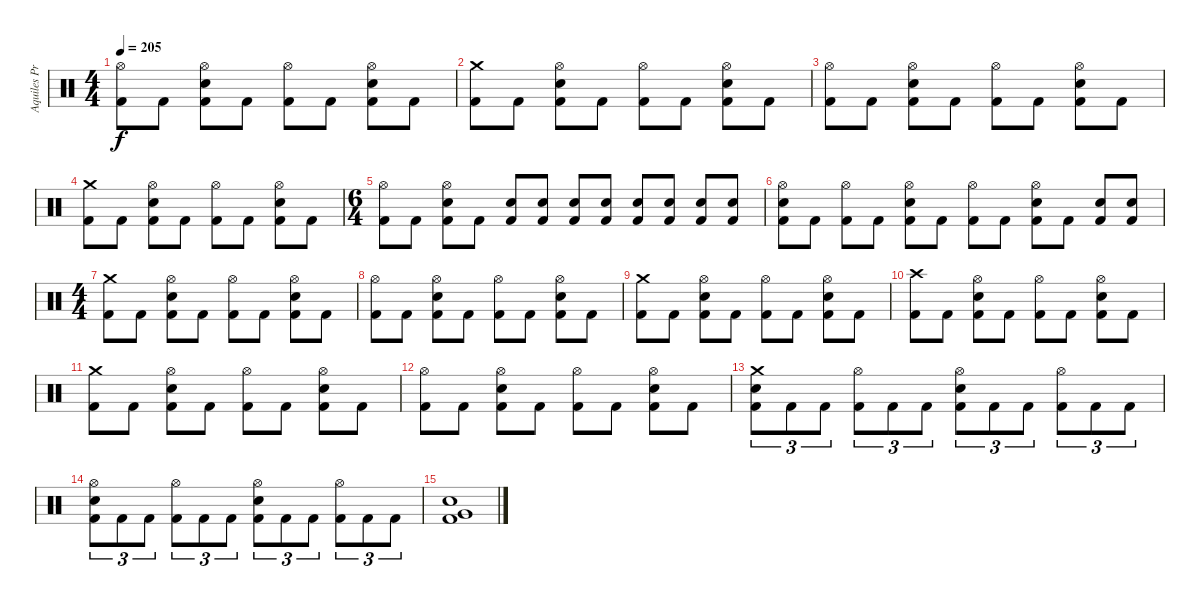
\track ("Aquiles Priester" "Aquiles Pr") {instrument percussion}
\staff {score}
\articulation defaults
\ts (4 4)
\tempo 205
\clef neutral
\ks c
("Hi-Hat (open)" "Kick (hit) 2").8{dy f} "Kick (hit) 2".8 ("Hi-Hat (open)" "Electric Snare (hit)" "Kick (hit) 2").8 "Kick (hit) 2".8 ("Hi-Hat (open)" "Kick (hit) 2").8 "Kick (hit) 2".8 ("Hi-Hat (open)" "Electric Snare (hit)" "Kick (hit) 2").8 "Kick (hit) 2".8 |
("Crash medium (hit)" "Kick (hit) 2").8 "Kick (hit) 2".8 ("Hi-Hat (open)" "Electric Snare (hit)" "Kick (hit) 2").8 "Kick (hit) 2".8 ("Hi-Hat (open)" "Kick (hit) 2").8 "Kick (hit) 2".8 ("Hi-Hat (open)" "Electric Snare (hit)" "Kick (hit) 2").8 "Kick (hit) 2".8 |
("Hi-Hat (open)" "Kick (hit) 2").8 "Kick (hit) 2".8 ("Hi-Hat (open)" "Electric Snare (hit)" "Kick (hit) 2").8 "Kick (hit) 2".8 ("Hi-Hat (open)" "Kick (hit) 2").8 "Kick (hit) 2".8 ("Hi-Hat (open)" "Electric Snare (hit)" "Kick (hit) 2").8 "Kick (hit) 2".8 |
("Crash medium (hit)" "Kick (hit) 2").8 "Kick (hit) 2".8 ("Hi-Hat (open)" "Electric Snare (hit)" "Kick (hit) 2").8 "Kick (hit) 2".8 ("Hi-Hat (open)" "Kick (hit) 2").8 "Kick (hit) 2".8 ("Hi-Hat (open)" "Electric Snare (hit)" "Kick (hit) 2").8 "Kick (hit) 2".8 |
\ts (6 4)
("Hi-Hat (open)" "Kick (hit) 2").8 "Kick (hit) 2".8 ("Hi-Hat (open)" "Electric Snare (hit)" "Kick (hit) 2").8 "Kick (hit) 2".8 ("Electric Snare (hit)" "Kick (hit) 2").8 ("Electric Snare (hit)" "Kick (hit) 2").8 ("Electric Snare (hit)" "Kick (hit) 2").8 ("Electric Snare (hit)" "Kick (hit) 2").8 ("Electric Snare (hit)" "Kick (hit) 2").8 ("Electric Snare (hit)" "Kick (hit) 2").8 ("Electric Snare (hit)" "Kick (hit) 2").8 ("Electric Snare (hit)" "Kick (hit) 2").8 |
("Hi-Hat (open)" "Electric Snare (hit)" "Kick (hit) 2").8 "Kick (hit) 2".8 ("Hi-Hat (open)" "Kick (hit) 2").8 "Kick (hit) 2".8 ("Hi-Hat (open)" "Electric Snare (hit)" "Kick (hit) 2").8 "Kick (hit) 2".8 ("Hi-Hat (open)" "Kick (hit) 2").8 "Kick (hit) 2".8 ("Hi-Hat (open)" "Electric Snare (hit)" "Kick (hit) 2").8 "Kick (hit) 2".8 ("Electric Snare (hit)" "Kick (hit) 2").8 ("Electric Snare (hit)" "Kick (hit) 2").8 |
\ts (4 4)
("Crash medium (hit)" "Kick (hit) 2").8 "Kick (hit) 2".8 ("Hi-Hat (open)" "Electric Snare (hit)" "Kick (hit) 2").8 "Kick (hit) 2".8 ("Hi-Hat (open)" "Kick (hit) 2").8 "Kick (hit) 2".8 ("Hi-Hat (open)" "Electric Snare (hit)" "Kick (hit) 2").8 "Kick (hit) 2".8 |
("Hi-Hat (open)" "Kick (hit) 2").8 "Kick (hit) 2".8 ("Hi-Hat (open)" "Electric Snare (hit)" "Kick (hit) 2").8 "Kick (hit) 2".8 ("Hi-Hat (open)" "Kick (hit) 2").8 "Kick (hit) 2".8 ("Hi-Hat (open)" "Electric Snare (hit)" "Kick (hit) 2").8 "Kick (hit) 2".8 |
("Crash medium (hit)" "Kick (hit) 2").8 "Kick (hit) 2".8 ("Hi-Hat (open)" "Electric Snare (hit)" "Kick (hit) 2").8 "Kick (hit) 2".8 ("Hi-Hat (open)" "Kick (hit) 2").8 "Kick (hit) 2".8 ("Hi-Hat (open)" "Electric Snare (hit)" "Kick (hit) 2").8 "Kick (hit) 2".8 |
("Crash high (hit)" "Kick (hit) 2").8 "Kick (hit) 2".8 ("Hi-Hat (open)" "Electric Snare (hit)" "Kick (hit) 2").8 "Kick (hit) 2".8 ("Hi-Hat (open)" "Kick (hit) 2").8 "Kick (hit) 2".8 ("Hi-Hat (open)" "Electric Snare (hit)" "Kick (hit) 2").8 "Kick (hit) 2".8 |
("Crash medium (hit)" "Kick (hit) 2").8 "Kick (hit) 2".8 ("Hi-Hat (open)" "Electric Snare (hit)" "Kick (hit) 2").8 "Kick (hit) 2".8 ("Hi-Hat (open)" "Kick (hit) 2").8 "Kick (hit) 2".8 ("Hi-Hat (open)" "Electric Snare (hit)" "Kick (hit) 2").8 "Kick (hit) 2".8 |
("Hi-Hat (open)" "Kick (hit) 2").8 "Kick (hit) 2".8 ("Hi-Hat (open)" "Electric Snare (hit)" "Kick (hit) 2").8 "Kick (hit) 2".8 ("Hi-Hat (open)" "Kick (hit) 2").8 "Kick (hit) 2".8 ("Hi-Hat (open)" "Electric Snare (hit)" "Kick (hit) 2").8 "Kick (hit) 2".8 |
("Crash medium (hit)" "Electric Snare (hit)" "Kick (hit) 2").8{tu (3 2)} "Kick (hit) 2".8{tu (3 2)} "Kick (hit) 2".8{tu (3 2)} ("Hi-Hat (open)" "Kick (hit) 2").8{tu (3 2)} "Kick (hit) 2".8{tu (3 2)} "Kick (hit) 2".8{tu (3 2)} ("Hi-Hat (open)" "Electric Snare (hit)" "Kick (hit) 2").8{tu (3 2)} "Kick (hit) 2".8{tu (3 2)} "Kick (hit) 2".8{tu (3 2)} ("Hi-Hat (open)" "Kick (hit) 2").8{tu (3 2)} "Kick (hit) 2".8{tu (3 2)} "Kick (hit) 2".8{tu (3 2)} |
("Hi-Hat (open)" "Electric Snare (hit)" "Kick (hit) 2").8{tu (3 2)} "Kick (hit) 2".8{tu (3 2)} "Kick (hit) 2".8{tu (3 2)} ("Hi-Hat (open)" "Kick (hit) 2").8{tu (3 2)} "Kick (hit) 2".8{tu (3 2)} "Kick (hit) 2".8{tu (3 2)} ("Hi-Hat (open)" "Electric Snare (hit)" "Kick (hit) 2").8{tu (3 2)} "Kick (hit) 2".8{tu (3 2)} "Kick (hit) 2".8{tu (3 2)} ("Hi-Hat (open)" "Kick (hit) 2").8{tu (3 2)} "Kick (hit) 2".8{tu (3 2)} "Kick (hit) 2".8{tu (3 2)} |
("Very Low Tom (hit)" "Electric Snare (hit)" "Kick (hit) 2").1
